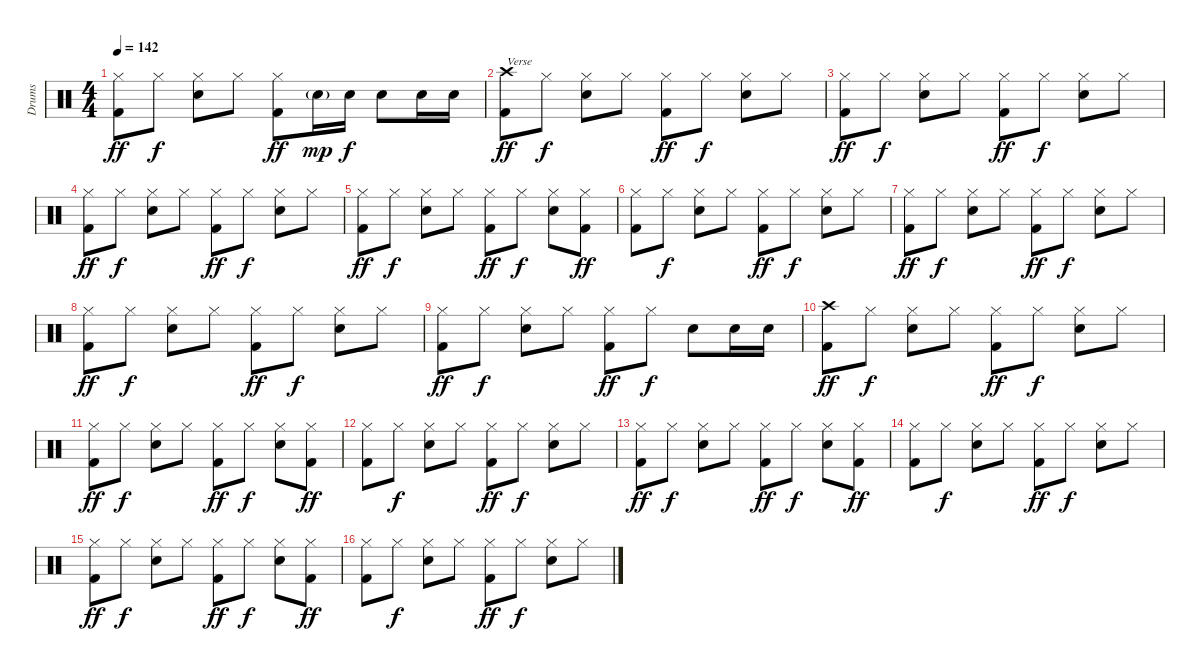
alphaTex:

\track ("Drums" "Drums") {instrument percussion}
\staff {score}
\articulation defaults
\ts (4 4)
\tempo 142
\clef neutral
\ks c
("Hi-Hat (closed)" "Kick (hit) 2").8{dy ff} "Hi-Hat (closed)".8{dy f} ("Hi-Hat (closed)" "Snare (hit) 2").8 "Hi-Hat (closed)".8 ("Hi-Hat (closed)" "Kick (hit) 2").8{dy ff} "Snare (hit) 2"{g}.16{dy mp} "Snare (hit) 2".16{dy f} "Snare (hit) 2".8 "Snare (hit) 2".16 "Snare (hit) 2".16 |
("Crash high (hit)" "Kick (hit) 2").8{txt "Verse" dy ff} "Hi-Hat (closed)".8{dy f} ("Hi-Hat (closed)" "Snare (hit) 2").8 "Hi-Hat (closed)".8 ("Hi-Hat (closed)" "Kick (hit) 2").8{dy ff} "Hi-Hat (closed)".8{dy f} ("Hi-Hat (closed)" "Snare (hit) 2").8 "Hi-Hat (closed)".8 |
("Hi-Hat (closed)" "Kick (hit) 2").8{dy ff} "Hi-Hat (closed)".8{dy f} ("Hi-Hat (closed)" "Snare (hit) 2").8 "Hi-Hat (closed)".8 ("Hi-Hat (closed)" "Kick (hit) 2").8{dy ff} "Hi-Hat (closed)".8{dy f} ("Hi-Hat (closed)" "Snare (hit) 2").8 "Hi-Hat (closed)".8 |
("Hi-Hat (closed)" "Kick (hit) 2").8{dy ff} "Hi-Hat (closed)".8{dy f} ("Hi-Hat (closed)" "Snare (hit) 2").8 "Hi-Hat (closed)".8 ("Hi-Hat (closed)" "Kick (hit) 2").8{dy ff} "Hi-Hat (closed)".8{dy f} ("Hi-Hat (closed)" "Snare (hit) 2").8 "Hi-Hat (closed)".8 |
("Hi-Hat (closed)" "Kick (hit) 2").8{dy ff} "Hi-Hat (closed)".8{dy f} ("Hi-Hat (closed)" "Snare (hit) 2").8 "Hi-Hat (closed)".8 ("Hi-Hat (closed)" "Kick (hit) 2").8{dy ff} "Hi-Hat (closed)".8{dy f} ("Hi-Hat (closed)" "Snare (hit) 2").8 ("Hi-Hat (closed)" "Kick (hit) 2").8{dy ff} |
("Hi-Hat (closed)" "Kick (hit) 2").8 "Hi-Hat (closed)".8{dy f} ("Hi-Hat (closed)" "Snare (hit) 2").8 "Hi-Hat (closed)".8 ("Hi-Hat (closed)" "Kick (hit) 2").8{dy ff} "Hi-Hat (closed)".8{dy f} ("Hi-Hat (closed)" "Snare (hit) 2").8 "Hi-Hat (closed)".8 |
("Hi-Hat (closed)" "Kick (hit) 2").8{dy ff} "Hi-Hat (closed)".8{dy f} ("Hi-Hat (closed)" "Snare (hit) 2").8 "Hi-Hat (closed)".8 ("Hi-Hat (closed)" "Kick (hit) 2").8{dy ff} "Hi-Hat (closed)".8{dy f} ("Hi-Hat (closed)" "Snare (hit) 2").8 "Hi-Hat (closed)".8 |
("Hi-Hat (closed)" "Kick (hit) 2").8{dy ff} "Hi-Hat (closed)".8{dy f} ("Hi-Hat (closed)" "Snare (hit) 2").8 "Hi-Hat (closed)".8 ("Hi-Hat (closed)" "Kick (hit) 2").8{dy ff} "Hi-Hat (closed)".8{dy f} ("Hi-Hat (closed)" "Snare (hit) 2").8 "Hi-Hat (closed)".8 |
("Hi-Hat (closed)" "Kick (hit) 2").8{dy ff} "Hi-Hat (closed)".8{dy f} ("Hi-Hat (closed)" "Snare (hit) 2").8 "Hi-Hat (closed)".8 ("Hi-Hat (closed)" "Kick (hit) 2").8{dy ff} "Hi-Hat (closed)".8{dy f} "Snare (hit) 2".8 "Snare (hit) 2".16 "Snare (hit) 2".16 |
("Crash high (hit)" "Kick (hit) 2").8{dy ff} "Hi-Hat (closed)".8{dy f} ("Hi-Hat (closed)" "Snare (hit) 2").8 "Hi-Hat (closed)".8 ("Hi-Hat (closed)" "Kick (hit) 2").8{dy ff} "Hi-Hat (closed)".8{dy f} ("Hi-Hat (closed)" "Snare (hit) 2").8 "Hi-Hat (closed)".8 |
("Hi-Hat (closed)" "Kick (hit) 2").8{dy ff} "Hi-Hat (closed)".8{dy f} ("Hi-Hat (closed)" "Snare (hit) 2").8 "Hi-Hat (closed)".8 ("Hi-Hat (closed)" "Kick (hit) 2").8{dy ff} "Hi-Hat (closed)".8{dy f} ("Hi-Hat (closed)" "Snare (hit) 2").8 ("Hi-Hat (closed)" "Kick (hit) 2").8{dy ff} |
("Hi-Hat (closed)" "Kick (hit) 2").8 "Hi-Hat (closed)".8{dy f} ("Hi-Hat (closed)" "Snare (hit) 2").8 "Hi-Hat (closed)".8 ("Hi-Hat (closed)" "Kick (hit) 2").8{dy ff} "Hi-Hat (closed)".8{dy f} ("Hi-Hat (closed)" "Snare (hit) 2").8 "Hi-Hat (closed)".8 |
("Hi-Hat (closed)" "Kick (hit) 2").8{dy ff} "Hi-Hat (closed)".8{dy f} ("Hi-Hat (closed)" "Snare (hit) 2").8 "Hi-Hat (closed)".8 ("Hi-Hat (closed)" "Kick (hit) 2").8{dy ff} "Hi-Hat (closed)".8{dy f} ("Hi-Hat (closed)" "Snare (hit) 2").8 ("Hi-Hat (closed)" "Kick (hit) 2").8{dy ff} |
("Hi-Hat (closed)" "Kick (hit) 2").8 "Hi-Hat (closed)".8{dy f} ("Hi-Hat (closed)" "Snare (hit) 2").8 "Hi-Hat (closed)".8 ("Hi-Hat (closed)" "Kick (hit) 2").8{dy ff} "Hi-Hat (closed)".8{dy f} ("Hi-Hat (closed)" "Snare (hit) 2").8 "Hi-Hat (closed)".8 |
("Hi-Hat (closed)" "Kick (hit) 2").8{dy ff} "Hi-Hat (closed)".8{dy f} ("Hi-Hat (closed)" "Snare (hit) 2").8 "Hi-Hat (closed)".8 ("Hi-Hat (closed)" "Kick (hit) 2").8{dy ff} "Hi-Hat (closed)".8{dy f} ("Hi-Hat (closed)" "Snare (hit) 2").8 ("Hi-Hat (closed)" "Kick (hit) 2").8{dy ff} |
("Hi-Hat (closed)" "Kick (hit) 2").8 "Hi-Hat (closed)".8{dy f} ("Hi-Hat (closed)" "Snare (hit) 2").8 "Hi-Hat (closed)".8 ("Hi-Hat (closed)" "Kick (hit) 2").8{dy ff} "Hi-Hat (closed)".8{dy f} ("Hi-Hat (closed)" "Snare (hit) 2").8 "Hi-Hat (closed)".8
